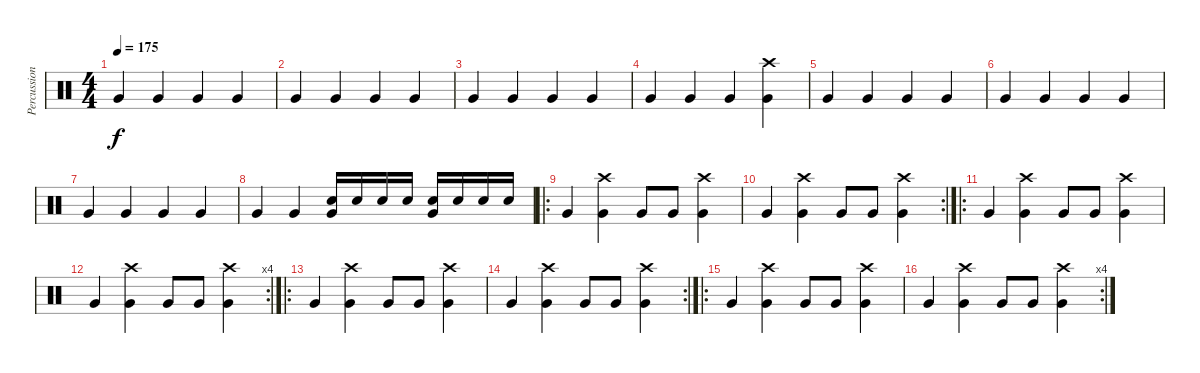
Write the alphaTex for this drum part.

\track ("Percussions" "Percussion") {instrument percussion}
\staff {score}
\articulation defaults
\ts (4 4)
\tempo 175
\clef neutral
\ks c "Very Low Tom (hit)".4{dy f} "Very Low Tom (hit)".4 "Very Low Tom (hit)".4 "Very Low Tom (hit)".4
|
"Very Low Tom (hit)".4 "Very Low Tom (hit)".4 "Very Low Tom (hit)".4 "Very Low Tom (hit)".4 |
"Very Low Tom (hit)".4 "Very Low Tom (hit)".4 "Very Low Tom (hit)".4 "Very Low Tom (hit)".4 |
"Very Low Tom (hit)".4 "Very Low Tom (hit)".4 "Very Low Tom (hit)".4 ("Very Low Tom (hit)" "Crash high (hit)").4 |
"Very Low Tom (hit)".4 "Very Low Tom (hit)".4 "Very Low Tom (hit)".4 "Very Low Tom (hit)".4 |
"Very Low Tom (hit)".4 "Very Low Tom (hit)".4 "Very Low Tom (hit)".4 "Very Low Tom (hit)".4 |
"Very Low Tom (hit)".4 "Very Low Tom (hit)".4 "Very Low Tom (hit)".4 "Very Low Tom (hit)".4 |
"Very Low Tom (hit)".4 "Very Low Tom (hit)".4 ("Very Low Tom (hit)" "Snare (hit) 2").16 "Snare (hit) 2".16 "Snare (hit) 2".16 "Snare (hit) 2".16 ("Very Low Tom (hit)" "Snare (hit) 2").16 "Snare (hit) 2".16 "Snare (hit) 2".16 "Snare (hit) 2".16 |
\ro "Very Low Tom (hit)".4
("Very Low Tom (hit)" "Crash high (hit)").4 "Very Low Tom (hit)".8 "Very Low Tom (hit)".8 ("Very Low Tom (hit)" "Crash high (hit)").4 |
\rc 2 "Very Low Tom (hit)".4
("Very Low Tom (hit)" "Crash high (hit)").4 "Very Low Tom (hit)".8 "Very Low Tom (hit)".8 ("Very Low Tom (hit)" "Crash high (hit)").4 |
\ro "Very Low Tom (hit)".4
("Very Low Tom (hit)" "Crash high (hit)").4 "Very Low Tom (hit)".8 "Very Low Tom (hit)".8 ("Very Low Tom (hit)" "Crash high (hit)").4 |
\rc 4 "Very Low Tom (hit)".4
("Very Low Tom (hit)" "Crash high (hit)").4 "Very Low Tom (hit)".8 "Very Low Tom (hit)".8 ("Very Low Tom (hit)" "Crash high (hit)").4 |
\ro "Very Low Tom (hit)".4
("Very Low Tom (hit)" "Crash high (hit)").4 "Very Low Tom (hit)".8 "Very Low Tom (hit)".8 ("Very Low Tom (hit)" "Crash high (hit)").4 |
\rc 2 "Very Low Tom (hit)".4
("Very Low Tom (hit)" "Crash high (hit)").4 "Very Low Tom (hit)".8 "Very Low Tom (hit)".8 ("Very Low Tom (hit)" "Crash high (hit)").4 |
\ro "Very Low Tom (hit)".4
("Very Low Tom (hit)" "Crash high (hit)").4 "Very Low Tom (hit)".8 "Very Low Tom (hit)".8 ("Very Low Tom (hit)" "Crash high (hit)").4 |
\rc 4 "Very Low Tom (hit)".4
("Very Low Tom (hit)" "Crash high (hit)").4 "Very Low Tom (hit)".8 "Very Low Tom (hit)".8 ("Very Low Tom (hit)" "Crash high (hit)").4
